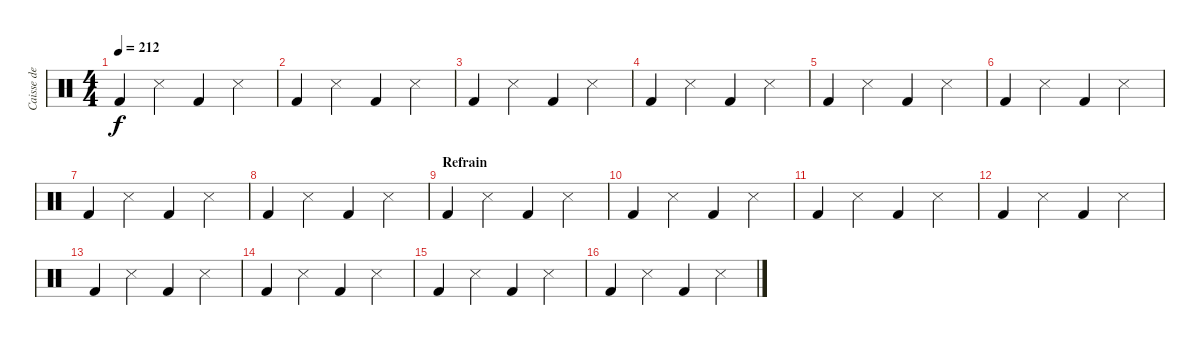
\track ("Caisse de guitare" "Caisse de ") {instrument percussion}
\staff {score}
\articulation defaults
\ts (4 4)
\tempo 212
\clef neutral
\ks c "Kick (hit) 2".4{dy f} "Metronome (hit)".4 "Kick (hit) 2".4 "Metronome (hit)".4
|
"Kick (hit) 2".4 "Metronome (hit)".4 "Kick (hit) 2".4 "Metronome (hit)".4 |
"Kick (hit) 2".4 "Metronome (hit)".4 "Kick (hit) 2".4 "Metronome (hit)".4 |
"Kick (hit) 2".4 "Metronome (hit)".4 "Kick (hit) 2".4 "Metronome (hit)".4 |
"Kick (hit) 2".4 "Metronome (hit)".4 "Kick (hit) 2".4 "Metronome (hit)".4 |
"Kick (hit) 2".4 "Metronome (hit)".4 "Kick (hit) 2".4 "Metronome (hit)".4 |
"Kick (hit) 2".4 "Metronome (hit)".4 "Kick (hit) 2".4 "Metronome (hit)".4 |
"Kick (hit) 2".4 "Metronome (hit)".4 "Kick (hit) 2".4 "Metronome (hit)".4 |
\section ("" "Refrain")
"Kick (hit) 2".4 "Metronome (hit)".4 "Kick (hit) 2".4 "Metronome (hit)".4 |
"Kick (hit) 2".4 "Metronome (hit)".4 "Kick (hit) 2".4 "Metronome (hit)".4 |
"Kick (hit) 2".4 "Metronome (hit)".4 "Kick (hit) 2".4 "Metronome (hit)".4 |
"Kick (hit) 2".4 "Metronome (hit)".4 "Kick (hit) 2".4 "Metronome (hit)".4 |
"Kick (hit) 2".4 "Metronome (hit)".4 "Kick (hit) 2".4 "Metronome (hit)".4 |
"Kick (hit) 2".4 "Metronome (hit)".4 "Kick (hit) 2".4 "Metronome (hit)".4 |
"Kick (hit) 2".4 "Metronome (hit)".4 "Kick (hit) 2".4 "Metronome (hit)".4 |
"Kick (hit) 2".4 "Metronome (hit)".4 "Kick (hit) 2".4 "Metronome (hit)".4
